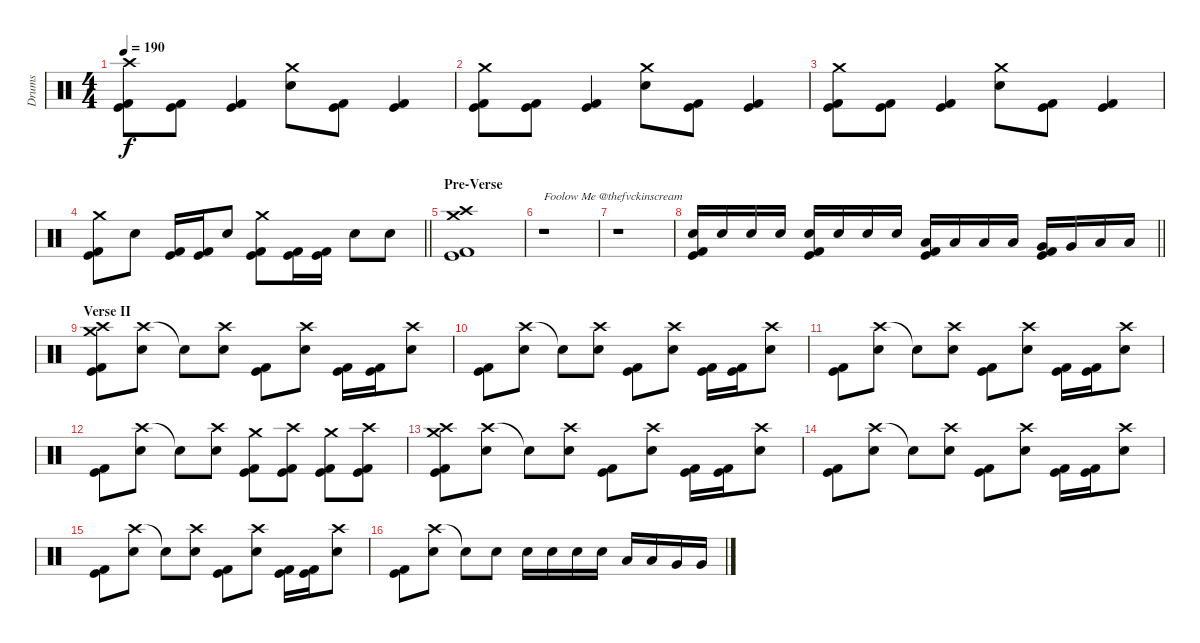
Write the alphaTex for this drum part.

\track ("Drums" "Drums") {instrument percussion}
\staff {score}
\articulation defaults
\ts (4 4)
\tempo 190
\clef neutral
\ks c
("Crash high (hit)" "Kick (hit)" "Kick (hit) 2").8{dy f} ("Kick (hit)" "Kick (hit) 2").8 ("Kick (hit)" "Kick (hit) 2").4 ("Crash medium (hit)" "Electric Snare (hit)").8 ("Kick (hit)" "Kick (hit) 2").8 ("Kick (hit)" "Kick (hit) 2").4 |
("Crash medium (hit)" "Kick (hit)" "Kick (hit) 2").8 ("Kick (hit)" "Kick (hit) 2").8 ("Kick (hit)" "Kick (hit) 2").4 ("Crash medium (hit)" "Electric Snare (hit)").8 ("Kick (hit)" "Kick (hit) 2").8 ("Kick (hit)" "Kick (hit) 2").4 |
("Crash medium (hit)" "Kick (hit)" "Kick (hit) 2").8 ("Kick (hit)" "Kick (hit) 2").8 ("Kick (hit)" "Kick (hit) 2").4 ("Crash medium (hit)" "Electric Snare (hit)").8 ("Kick (hit)" "Kick (hit) 2").8 ("Kick (hit)" "Kick (hit) 2").4 |
\barLineRight lightlight
("Crash medium (hit)" "Kick (hit)" "Kick (hit) 2").8 "Electric Snare (hit)".8 ("Kick (hit)" "Kick (hit) 2").16 ("Kick (hit)" "Kick (hit) 2").16 "Electric Snare (hit)".8 ("Crash medium (hit)" "Kick (hit)" "Kick (hit) 2").8 ("Kick (hit)" "Kick (hit) 2").16 ("Kick (hit)" "Kick (hit) 2").16 "Electric Snare (hit)".8 "Electric Snare (hit)".8 |
\section ("" "Pre-Verse")
("Crash high (hit)" "Crash medium (hit)" "Kick (hit)" "Kick (hit) 2").1 |
r.1{txt "Foolow Me @thefvckinscream"} |
r.1 |
\barLineRight lightlight
("Electric Snare (hit)" "Kick (hit)" "Kick (hit) 2").16 "Electric Snare (hit)".16 "Electric Snare (hit)".16 "Electric Snare (hit)".16 ("Electric Snare (hit)" "Kick (hit)" "Kick (hit) 2").16 "Electric Snare (hit)".16 "Electric Snare (hit)".16 "Electric Snare (hit)".16 ("Low Tom (hit)" "Kick (hit)" "Kick (hit) 2").16 "Low Tom (hit)".16 "Low Tom (hit)".16 "Low Tom (hit)".16 ("Very Low Tom (hit)" "Kick (hit)" "Kick (hit) 2").16 "Very Low Tom (hit)".16 "Low Floor Tom (hit)".16 "Low Floor Tom (hit)".16 |
\section ("" "Verse II")
("Crash medium (hit)" "Crash high (hit)" "Kick (hit)" "Kick (hit) 2").8 ("Crash high (hit)" "Electric Snare (hit)").8 "Snare (hit)"{t}.8 ("Crash high (hit)" "Electric Snare (hit)").8 ("Kick (hit)" "Kick (hit) 2").8 ("Crash high (hit)" "Electric Snare (hit)").8 ("Kick (hit)" "Kick (hit) 2").16 ("Kick (hit)" "Kick (hit) 2").16 ("Crash high (hit)" "Electric Snare (hit)").8 |
("Kick (hit)" "Kick (hit) 2").8 ("Crash high (hit)" "Electric Snare (hit)").8 "Snare (hit)"{t}.8 ("Crash high (hit)" "Electric Snare (hit)").8 ("Kick (hit)" "Kick (hit) 2").8 ("Crash high (hit)" "Electric Snare (hit)").8 ("Kick (hit)" "Kick (hit) 2").16 ("Kick (hit)" "Kick (hit) 2").16 ("Crash high (hit)" "Electric Snare (hit)").8 |
("Kick (hit)" "Kick (hit) 2").8 ("Crash high (hit)" "Electric Snare (hit)").8 "Snare (hit)"{t}.8 ("Crash high (hit)" "Electric Snare (hit)").8 ("Kick (hit)" "Kick (hit) 2").8 ("Crash high (hit)" "Electric Snare (hit)").8 ("Kick (hit)" "Kick (hit) 2").16 ("Kick (hit)" "Kick (hit) 2").16 ("Crash high (hit)" "Electric Snare (hit)").8 |
("Kick (hit)" "Kick (hit) 2").8 ("Crash high (hit)" "Electric Snare (hit)").8 "Snare (hit)"{t}.8 ("Crash high (hit)" "Electric Snare (hit)").8 ("Crash medium (hit)" "Kick (hit)" "Kick (hit) 2").8 ("Crash high (hit)" "Kick (hit)" "Kick (hit) 2").8 ("Crash medium (hit)" "Kick (hit)" "Kick (hit) 2").8 ("Crash high (hit)" "Kick (hit)" "Kick (hit) 2").8 |
("Crash medium (hit)" "Crash high (hit)" "Kick (hit)" "Kick (hit) 2").8 ("Crash high (hit)" "Electric Snare (hit)").8 "Snare (hit)"{t}.8 ("Crash high (hit)" "Electric Snare (hit)").8 ("Kick (hit)" "Kick (hit) 2").8 ("Crash high (hit)" "Electric Snare (hit)").8 ("Kick (hit)" "Kick (hit) 2").16 ("Kick (hit)" "Kick (hit) 2").16 ("Crash high (hit)" "Electric Snare (hit)").8 |
("Kick (hit)" "Kick (hit) 2").8 ("Crash high (hit)" "Electric Snare (hit)").8 "Snare (hit)"{t}.8 ("Crash high (hit)" "Electric Snare (hit)").8 ("Kick (hit)" "Kick (hit) 2").8 ("Crash high (hit)" "Electric Snare (hit)").8 ("Kick (hit)" "Kick (hit) 2").16 ("Kick (hit)" "Kick (hit) 2").16 ("Crash high (hit)" "Electric Snare (hit)").8 |
("Kick (hit)" "Kick (hit) 2").8 ("Crash high (hit)" "Electric Snare (hit)").8 "Snare (hit)"{t}.8 ("Crash high (hit)" "Electric Snare (hit)").8 ("Kick (hit)" "Kick (hit) 2").8 ("Crash high (hit)" "Electric Snare (hit)").8 ("Kick (hit)" "Kick (hit) 2").16 ("Kick (hit)" "Kick (hit) 2").16 ("Crash high (hit)" "Electric Snare (hit)").8 |
("Kick (hit)" "Kick (hit) 2").8 ("Crash high (hit)" "Electric Snare (hit)").8 "Snare (hit)"{t}.8 "Electric Snare (hit)".8 "Electric Snare (hit)".16 "Electric Snare (hit)".16 "Electric Snare (hit)".16 "Electric Snare (hit)".16 "Low Tom (hit)".16 "Low Tom (hit)".16 "Very Low Tom (hit)".16 "Very Low Tom (hit)".16
